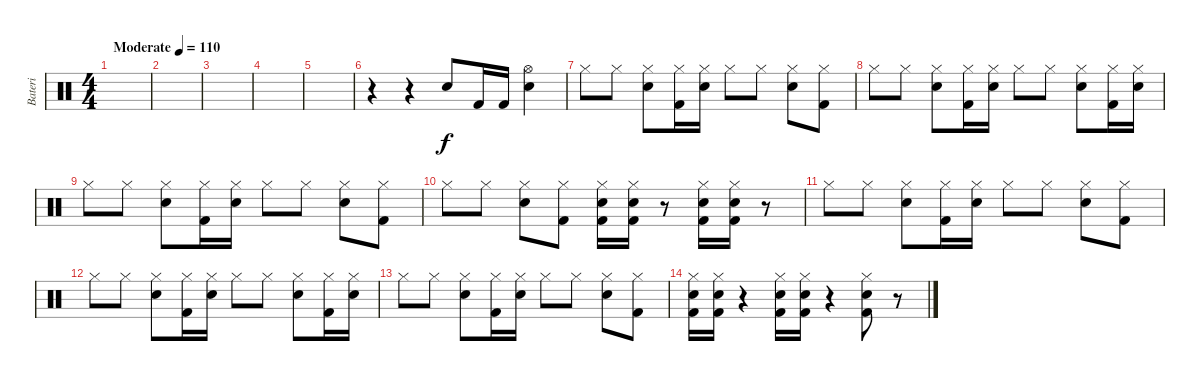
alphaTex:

\track ("Bateri" "Bateri") {instrument percussion}
\staff {score}
\articulation defaults
\ts (4 4)
\tempo (110 "Moderate")
\clef neutral
\ks c
|
|
|
|
|
r.4 r.4 "Electric Snare (hit)".8 "Kick (hit) 2".16 "Kick (hit) 2".16 ("Hi-Hat (open)" "Electric Snare (hit)").4 |
"Hi-Hat (closed)".8 "Hi-Hat (closed)".8 ("Electric Snare (hit)" "Hi-Hat (closed)").8 ("Kick (hit) 2" "Hi-Hat (closed)").16 ("Electric Snare (hit)" "Hi-Hat (closed)").16 "Hi-Hat (closed)".8 "Hi-Hat (closed)".8 ("Electric Snare (hit)" "Hi-Hat (closed)").8 ("Kick (hit) 2" "Hi-Hat (closed)").8 |
"Hi-Hat (closed)".8 "Hi-Hat (closed)".8 ("Electric Snare (hit)" "Hi-Hat (closed)").8 ("Kick (hit) 2" "Hi-Hat (closed)").16 ("Electric Snare (hit)" "Hi-Hat (closed)").16 "Hi-Hat (closed)".8 "Hi-Hat (closed)".8 ("Electric Snare (hit)" "Hi-Hat (closed)").8 ("Kick (hit) 2" "Hi-Hat (closed)").16 ("Electric Snare (hit)" "Hi-Hat (closed)").16 |
"Hi-Hat (closed)".8 "Hi-Hat (closed)".8 ("Electric Snare (hit)" "Hi-Hat (closed)").8 ("Kick (hit) 2" "Hi-Hat (closed)").16 ("Electric Snare (hit)" "Hi-Hat (closed)").16 "Hi-Hat (closed)".8 "Hi-Hat (closed)".8 ("Electric Snare (hit)" "Hi-Hat (closed)").8 ("Kick (hit) 2" "Hi-Hat (closed)").8 |
"Hi-Hat (closed)".8 "Hi-Hat (closed)".8 ("Electric Snare (hit)" "Hi-Hat (closed)").8 ("Kick (hit) 2" "Hi-Hat (closed)").8 ("Electric Snare (hit)" "Kick (hit) 2" "Hi-Hat (closed)").16 ("Electric Snare (hit)" "Kick (hit) 2" "Hi-Hat (closed)").16 r.8 ("Electric Snare (hit)" "Kick (hit) 2" "Hi-Hat (closed)").16 ("Electric Snare (hit)" "Kick (hit) 2" "Hi-Hat (closed)").16 r.8 |
"Hi-Hat (closed)".8 "Hi-Hat (closed)".8 ("Electric Snare (hit)" "Hi-Hat (closed)").8 ("Kick (hit) 2" "Hi-Hat (closed)").16 ("Electric Snare (hit)" "Hi-Hat (closed)").16 "Hi-Hat (closed)".8 "Hi-Hat (closed)".8 ("Electric Snare (hit)" "Hi-Hat (closed)").8 ("Kick (hit) 2" "Hi-Hat (closed)").8 |
"Hi-Hat (closed)".8 "Hi-Hat (closed)".8 ("Electric Snare (hit)" "Hi-Hat (closed)").8 ("Kick (hit) 2" "Hi-Hat (closed)").16 ("Electric Snare (hit)" "Hi-Hat (closed)").16 "Hi-Hat (closed)".8 "Hi-Hat (closed)".8 ("Electric Snare (hit)" "Hi-Hat (closed)").8 ("Kick (hit) 2" "Hi-Hat (closed)").16 ("Electric Snare (hit)" "Hi-Hat (closed)").16 |
"Hi-Hat (closed)".8 "Hi-Hat (closed)".8 ("Electric Snare (hit)" "Hi-Hat (closed)").8 ("Kick (hit) 2" "Hi-Hat (closed)").16 ("Electric Snare (hit)" "Hi-Hat (closed)").16 "Hi-Hat (closed)".8 "Hi-Hat (closed)".8 ("Electric Snare (hit)" "Hi-Hat (closed)").8 ("Kick (hit) 2" "Hi-Hat (closed)").8 |
("Electric Snare (hit)" "Kick (hit) 2" "Hi-Hat (closed)").16 ("Electric Snare (hit)" "Kick (hit) 2" "Hi-Hat (closed)").16 r.4 ("Electric Snare (hit)" "Kick (hit) 2" "Hi-Hat (closed)").16 ("Electric Snare (hit)" "Kick (hit) 2" "Hi-Hat (closed)").16 r.4 ("Electric Snare (hit)" "Kick (hit) 2" "Hi-Hat (closed)").8 r.8
